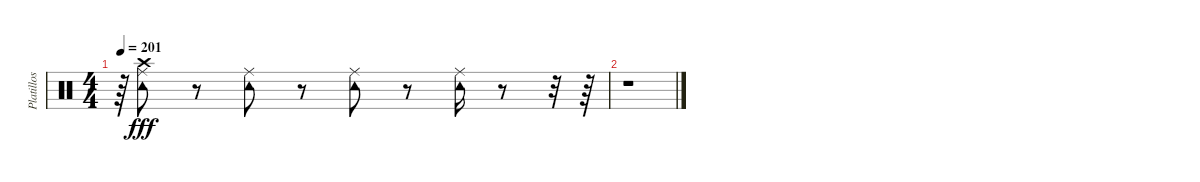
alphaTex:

\track ("Platillos y pandero" "Platillos ") {instrument percussion}
\staff {score}
\articulation defaults
\ts (4 4)
\tempo 201
\clef neutral
\ks c
r.64{dy fff} ("Crash high (hit)" "Ride (middle)" "Tambourine (hit)").8 r.8 ("Ride (middle)" "Tambourine (hit)").8 r.8 ("Ride (middle)" "Tambourine (hit)").8 r.8 ("Ride (middle)" "Tambourine (hit)").16 r.8 r.32 r.64 |
r.1
